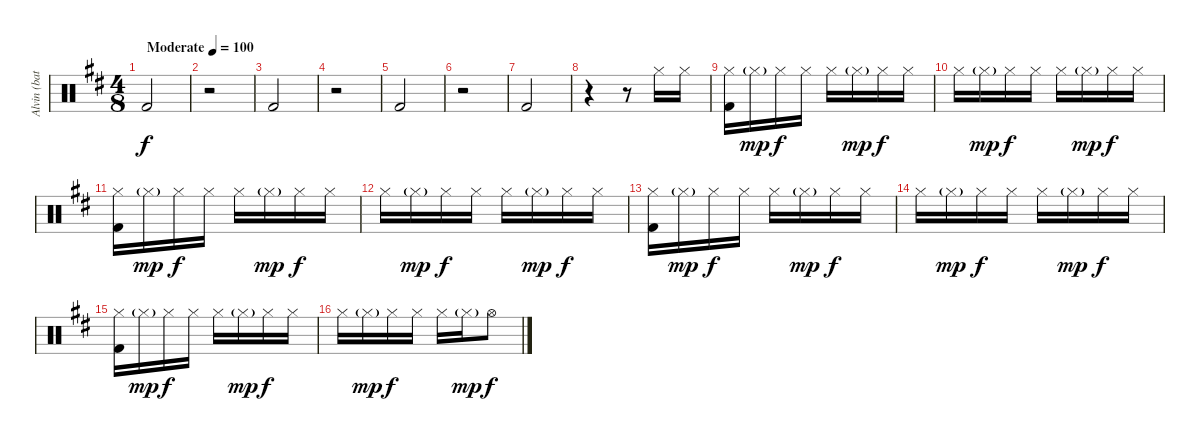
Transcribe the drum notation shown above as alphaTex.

\track ("Alvin (bateria)" "Alvin (bat") {instrument percussion}
\staff {score}
\articulation defaults
\ts (4 8)
\tempo (100 "Moderate")
\clef neutral
\ks bminor "Kick (hit) 2".2{dy f}
|
r.2 |
"Kick (hit) 2".2 |
r.2 |
"Kick (hit) 2".2 |
r.2 |
"Kick (hit) 2".2 |
r.4 r.8 "Hi-Hat (closed)".16 "Hi-Hat (closed)".16 |
("Kick (hit) 2" "Hi-Hat (closed)").16 "Hi-Hat (closed)"{g}.16{dy mp} "Hi-Hat (closed)".16{dy f} "Hi-Hat (closed)".16 "Hi-Hat (closed)".16 "Hi-Hat (closed)"{g}.16{dy mp} "Hi-Hat (closed)".16{dy f} "Hi-Hat (closed)".16 |
"Hi-Hat (closed)".16 "Hi-Hat (closed)"{g}.16{dy mp} "Hi-Hat (closed)".16{dy f} "Hi-Hat (closed)".16 "Hi-Hat (closed)".16 "Hi-Hat (closed)"{g}.16{dy mp} "Hi-Hat (closed)".16{dy f} "Hi-Hat (closed)".16 |
("Hi-Hat (closed)" "Kick (hit) 2").16 "Hi-Hat (closed)"{g}.16{dy mp} "Hi-Hat (closed)".16{dy f} "Hi-Hat (closed)".16 "Hi-Hat (closed)".16 "Hi-Hat (closed)"{g}.16{dy mp} "Hi-Hat (closed)".16{dy f} "Hi-Hat (closed)".16 |
"Hi-Hat (closed)".16 "Hi-Hat (closed)"{g}.16{dy mp} "Hi-Hat (closed)".16{dy f} "Hi-Hat (closed)".16 "Hi-Hat (closed)".16 "Hi-Hat (closed)"{g}.16{dy mp} "Hi-Hat (closed)".16{dy f} "Hi-Hat (closed)".16 |
("Hi-Hat (closed)" "Kick (hit) 2").16 "Hi-Hat (closed)"{g}.16{dy mp} "Hi-Hat (closed)".16{dy f} "Hi-Hat (closed)".16 "Hi-Hat (closed)".16 "Hi-Hat (closed)"{g}.16{dy mp} "Hi-Hat (closed)".16{dy f} "Hi-Hat (closed)".16 |
"Hi-Hat (closed)".16 "Hi-Hat (closed)"{g}.16{dy mp} "Hi-Hat (closed)".16{dy f} "Hi-Hat (closed)".16 "Hi-Hat (closed)".16 "Hi-Hat (closed)"{g}.16{dy mp} "Hi-Hat (closed)".16{dy f} "Hi-Hat (closed)".16 |
("Hi-Hat (closed)" "Kick (hit) 2").16 "Hi-Hat (closed)"{g}.16{dy mp} "Hi-Hat (closed)".16{dy f} "Hi-Hat (closed)".16 "Hi-Hat (closed)".16 "Hi-Hat (closed)"{g}.16{dy mp} "Hi-Hat (closed)".16{dy f} "Hi-Hat (closed)".16 |
"Hi-Hat (closed)".16 "Hi-Hat (closed)"{g}.16{dy mp} "Hi-Hat (closed)".16{dy f} "Hi-Hat (closed)".16 "Hi-Hat (closed)".16 "Hi-Hat (closed)"{g}.16{dy mp} "Hi-Hat (open)".8{dy f}
